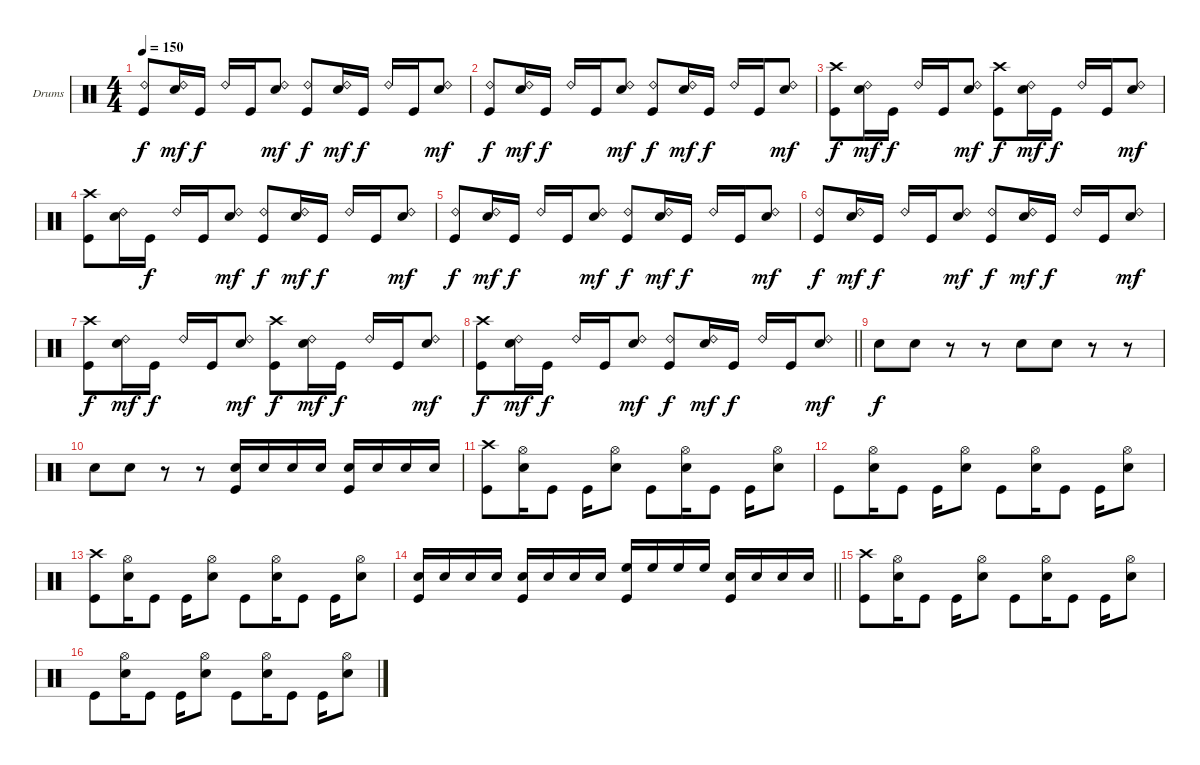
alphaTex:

\bracketExtendMode nobrackets
\firstSystemTrackNameOrientation horizontal
\otherSystemsTrackNameOrientation horizontal
\track ("Drumkit" "Drums") {instrument percussion}
\staff {score}
\articulation defaults
\ts (4 4)
\tempo 150
\clef neutral
\ks c
("Ride (bell) 2" "Kick (hit)").8{dy f} ("Ride (bell) 2" "Snare (hit) 2").16{dy mf} "Kick (hit)".16{dy f} "Ride (bell) 2".16 "Kick (hit)".16 ("Ride (bell) 2" "Snare (hit) 2").8{dy mf} ("Ride (bell) 2" "Kick (hit)").8{dy f} ("Ride (bell) 2" "Snare (hit) 2").16{dy mf} "Kick (hit)".16{dy f} "Ride (bell) 2".16 "Kick (hit)".16 ("Ride (bell) 2" "Snare (hit) 2").8{dy mf} |
("Ride (bell) 2" "Kick (hit)").8{dy f} ("Ride (bell) 2" "Snare (hit) 2").16{dy mf} "Kick (hit)".16{dy f} "Ride (bell) 2".16 "Kick (hit)".16 ("Ride (bell) 2" "Snare (hit) 2").8{dy mf} ("Ride (bell) 2" "Kick (hit)").8{dy f} ("Ride (bell) 2" "Snare (hit) 2").16{dy mf} "Kick (hit)".16{dy f} "Ride (bell) 2".16 "Kick (hit)".16 ("Ride (bell) 2" "Snare (hit) 2").8{dy mf} |
("Crash high (hit)" "Kick (hit)").8{dy f} ("Ride (bell) 2" "Snare (hit) 2").16{dy mf} "Kick (hit)".16{dy f} "Ride (bell) 2".16 "Kick (hit)".16 ("Ride (bell) 2" "Snare (hit) 2").8{dy mf} ("Crash high (hit)" "Kick (hit)").8{dy f} ("Ride (bell) 2" "Snare (hit) 2").16{dy mf} "Kick (hit)".16{dy f} "Ride (bell) 2".16 "Kick (hit)".16 ("Ride (bell) 2" "Snare (hit) 2").8{dy mf} |
("Crash high (hit)" "Kick (hit)").8 ("Ride (bell) 2" "Snare (hit) 2").16 "Kick (hit)".16{dy f} "Ride (bell) 2".16 "Kick (hit)".16 ("Ride (bell) 2" "Snare (hit) 2").8{dy mf} ("Ride (bell) 2" "Kick (hit)").8{dy f} ("Ride (bell) 2" "Snare (hit) 2").16{dy mf} "Kick (hit)".16{dy f} "Ride (bell) 2".16 "Kick (hit)".16 ("Ride (bell) 2" "Snare (hit) 2").8{dy mf} |
("Ride (bell) 2" "Kick (hit)").8{dy f} ("Ride (bell) 2" "Snare (hit) 2").16{dy mf} "Kick (hit)".16{dy f} "Ride (bell) 2".16 "Kick (hit)".16 ("Ride (bell) 2" "Snare (hit) 2").8{dy mf} ("Ride (bell) 2" "Kick (hit)").8{dy f} ("Ride (bell) 2" "Snare (hit) 2").16{dy mf} "Kick (hit)".16{dy f} "Ride (bell) 2".16 "Kick (hit)".16 ("Ride (bell) 2" "Snare (hit) 2").8{dy mf} |
("Ride (bell) 2" "Kick (hit)").8{dy f} ("Ride (bell) 2" "Snare (hit) 2").16{dy mf} "Kick (hit)".16{dy f} "Ride (bell) 2".16 "Kick (hit)".16 ("Ride (bell) 2" "Snare (hit) 2").8{dy mf} ("Ride (bell) 2" "Kick (hit)").8{dy f} ("Ride (bell) 2" "Snare (hit) 2").16{dy mf} "Kick (hit)".16{dy f} "Ride (bell) 2".16 "Kick (hit)".16 ("Ride (bell) 2" "Snare (hit) 2").8{dy mf} |
("Crash high (hit)" "Kick (hit)").8{dy f} ("Ride (bell) 2" "Snare (hit) 2").16{dy mf} "Kick (hit)".16{dy f} "Ride (bell) 2".16 "Kick (hit)".16 ("Ride (bell) 2" "Snare (hit) 2").8{dy mf} ("Crash high (hit)" "Kick (hit)").8{dy f} ("Ride (bell) 2" "Snare (hit) 2").16{dy mf} "Kick (hit)".16{dy f} "Ride (bell) 2".16 "Kick (hit)".16 ("Ride (bell) 2" "Snare (hit) 2").8{dy mf} |
\barLineRight lightlight
("Crash high (hit)" "Kick (hit)").8{dy f} ("Ride (bell) 2" "Snare (hit) 2").16{dy mf} "Kick (hit)".16{dy f} "Ride (bell) 2".16 "Kick (hit)".16 ("Ride (bell) 2" "Snare (hit) 2").8{dy mf} ("Ride (bell) 2" "Kick (hit)").8{dy f} ("Ride (bell) 2" "Snare (hit) 2").16{dy mf} "Kick (hit)".16{dy f} "Ride (bell) 2".16 "Kick (hit)".16 ("Ride (bell) 2" "Snare (hit) 2").8{dy mf} |
"Snare (hit) 2".8{dy f} "Snare (hit) 2".8 r.8 r.8 "Snare (hit) 2".8 "Snare (hit) 2".8 r.8 r.8 |
"Snare (hit) 2".8 "Snare (hit) 2".8 r.8 r.8 ("Snare (hit) 2" "Kick (hit)").16 "Snare (hit) 2".16 "Snare (hit) 2".16 "Snare (hit) 2".16 ("Snare (hit) 2" "Kick (hit)").16 "Snare (hit) 2".16 "Snare (hit) 2".16 "Snare (hit) 2".16 |
("Crash high (hit)" "Kick (hit)").8 ("Hi-Hat (open)" "Snare (hit) 2").16 "Kick (hit)".8 "Kick (hit)".16 ("Hi-Hat (open)" "Snare (hit) 2").8 "Kick (hit)".8 ("Hi-Hat (open)" "Snare (hit) 2").16 "Kick (hit)".8 "Kick (hit)".16 ("Hi-Hat (open)" "Snare (hit) 2").8 |
"Kick (hit)".8 ("Hi-Hat (open)" "Snare (hit) 2").16 "Kick (hit)".8 "Kick (hit)".16 ("Hi-Hat (open)" "Snare (hit) 2").8 "Kick (hit)".8 ("Hi-Hat (open)" "Snare (hit) 2").16 "Kick (hit)".8 "Kick (hit)".16 ("Hi-Hat (open)" "Snare (hit) 2").8 |
("Crash high (hit)" "Kick (hit)").8 ("Hi-Hat (open)" "Snare (hit) 2").16 "Kick (hit)".8 "Kick (hit)".16 ("Hi-Hat (open)" "Snare (hit) 2").8 "Kick (hit)".8 ("Hi-Hat (open)" "Snare (hit) 2").16 "Kick (hit)".8 "Kick (hit)".16 ("Hi-Hat (open)" "Snare (hit) 2").8 |
\barLineRight lightlight
("Snare (hit) 2" "Kick (hit)").16 "Snare (hit) 2".16 "Snare (hit) 2".16 "Snare (hit) 2".16 ("Snare (hit) 2" "Kick (hit)").16 "Snare (hit) 2".16 "Snare (hit) 2".16 "Snare (hit) 2".16 ("High Floor Tom (hit)" "Kick (hit)").16 "High Floor Tom (hit)".16 "High Floor Tom (hit)".16 "High Floor Tom (hit)".16 ("Snare (hit) 2" "Kick (hit)").16 "Snare (hit) 2".16 "Snare (hit) 2".16 "Snare (hit) 2".16 |
("Crash high (hit)" "Kick (hit)").8 ("Hi-Hat (open)" "Snare (hit) 2").16 "Kick (hit)".8 "Kick (hit)".16 ("Hi-Hat (open)" "Snare (hit) 2").8 "Kick (hit)".8 ("Hi-Hat (open)" "Snare (hit) 2").16 "Kick (hit)".8 "Kick (hit)".16 ("Hi-Hat (open)" "Snare (hit) 2").8 |
"Kick (hit)".8 ("Hi-Hat (open)" "Snare (hit) 2").16 "Kick (hit)".8 "Kick (hit)".16 ("Hi-Hat (open)" "Snare (hit) 2").8 "Kick (hit)".8 ("Hi-Hat (open)" "Snare (hit) 2").16 "Kick (hit)".8 "Kick (hit)".16 ("Hi-Hat (open)" "Snare (hit) 2").8
